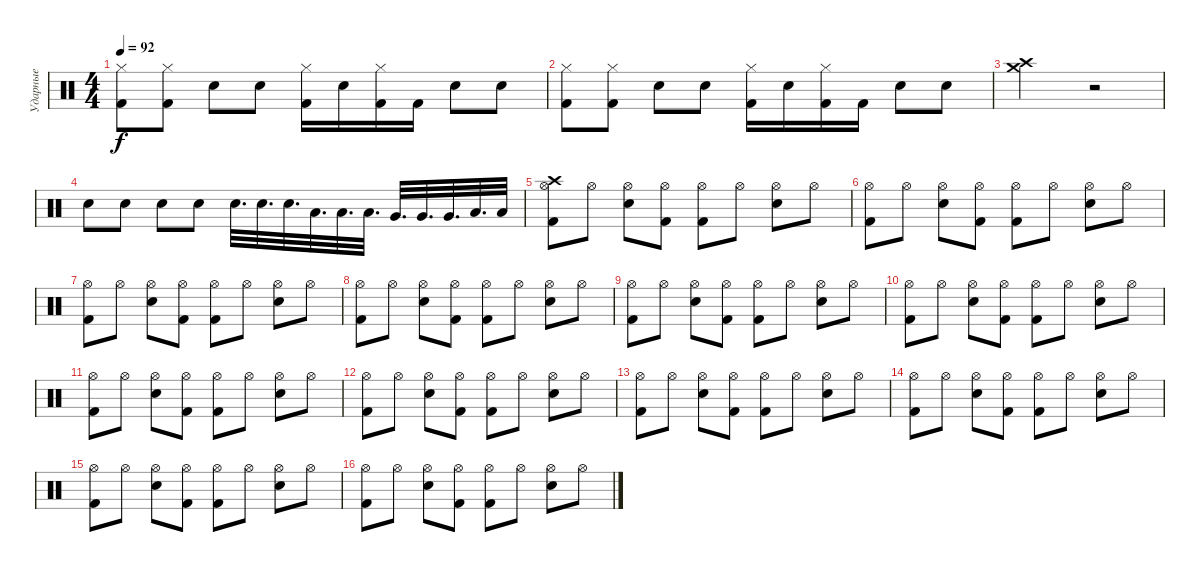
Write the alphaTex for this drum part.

\track ("Ударные" "Ударные") {instrument percussion}
\staff {score}
\articulation defaults
\ts (4 4)
\tempo 92
\clef neutral
\ks c
("Kick (hit) 2" "Hi-Hat (closed)").8{dy f} ("Kick (hit) 2" "Hi-Hat (closed)").8 "Electric Snare (hit)".8 "Electric Snare (hit)".8 ("Kick (hit) 2" "Hi-Hat (closed)").16 "Electric Snare (hit)".16 ("Kick (hit) 2" "Hi-Hat (closed)").16 "Kick (hit) 2".16 "Electric Snare (hit)".8 "Electric Snare (hit)".8 |
("Kick (hit) 2" "Hi-Hat (closed)").8 ("Kick (hit) 2" "Hi-Hat (closed)").8 "Electric Snare (hit)".8 "Electric Snare (hit)".8 ("Kick (hit) 2" "Hi-Hat (closed)").16 "Electric Snare (hit)".16 ("Kick (hit) 2" "Hi-Hat (closed)").16 "Kick (hit) 2".16 "Electric Snare (hit)".8 "Electric Snare (hit)".8 |
("Crash medium (hit)" "Crash high (hit)").2 r.2 |
"Electric Snare (hit)".8 "Electric Snare (hit)".8 "Electric Snare (hit)".8 "Electric Snare (hit)".8 "Electric Snare (hit)".32{d} "Electric Snare (hit)".32{d} "Electric Snare (hit)".32{d} "Low Tom (hit)".32{d} "Low Tom (hit)".32{d} "Low Tom (hit)".32{d} "Very Low Tom (hit)".32{d} "Very Low Tom (hit)".32{d} "Very Low Tom (hit)".32{d} "Low Floor Tom (hit)".32{d} "Low Floor Tom (hit)".32 |
("Kick (hit) 2" "Hi-Hat (open)" "Crash high (hit)").8 "Hi-Hat (open)".8 ("Electric Snare (hit)" "Hi-Hat (open)").8 ("Kick (hit) 2" "Hi-Hat (open)").8 ("Kick (hit) 2" "Hi-Hat (open)").8 "Hi-Hat (open)".8 ("Electric Snare (hit)" "Hi-Hat (open)").8 "Hi-Hat (open)".8 |
("Kick (hit) 2" "Hi-Hat (open)").8 "Hi-Hat (open)".8 ("Electric Snare (hit)" "Hi-Hat (open)").8 ("Kick (hit) 2" "Hi-Hat (open)").8 ("Kick (hit) 2" "Hi-Hat (open)").8 "Hi-Hat (open)".8 ("Electric Snare (hit)" "Hi-Hat (open)").8 "Hi-Hat (open)".8 |
("Kick (hit) 2" "Hi-Hat (open)").8 "Hi-Hat (open)".8 ("Electric Snare (hit)" "Hi-Hat (open)").8 ("Kick (hit) 2" "Hi-Hat (open)").8 ("Kick (hit) 2" "Hi-Hat (open)").8 "Hi-Hat (open)".8 ("Electric Snare (hit)" "Hi-Hat (open)").8 "Hi-Hat (open)".8 |
("Kick (hit) 2" "Hi-Hat (open)").8 "Hi-Hat (open)".8 ("Electric Snare (hit)" "Hi-Hat (open)").8 ("Kick (hit) 2" "Hi-Hat (open)").8 ("Kick (hit) 2" "Hi-Hat (open)").8 "Hi-Hat (open)".8 ("Electric Snare (hit)" "Hi-Hat (open)").8 "Hi-Hat (open)".8 |
("Kick (hit) 2" "Hi-Hat (open)").8 "Hi-Hat (open)".8 ("Electric Snare (hit)" "Hi-Hat (open)").8 ("Kick (hit) 2" "Hi-Hat (open)").8 ("Kick (hit) 2" "Hi-Hat (open)").8 "Hi-Hat (open)".8 ("Electric Snare (hit)" "Hi-Hat (open)").8 "Hi-Hat (open)".8 |
("Kick (hit) 2" "Hi-Hat (open)").8 "Hi-Hat (open)".8 ("Electric Snare (hit)" "Hi-Hat (open)").8 ("Kick (hit) 2" "Hi-Hat (open)").8 ("Kick (hit) 2" "Hi-Hat (open)").8 "Hi-Hat (open)".8 ("Electric Snare (hit)" "Hi-Hat (open)").8 "Hi-Hat (open)".8 |
("Kick (hit) 2" "Hi-Hat (open)").8 "Hi-Hat (open)".8 ("Electric Snare (hit)" "Hi-Hat (open)").8 ("Kick (hit) 2" "Hi-Hat (open)").8 ("Kick (hit) 2" "Hi-Hat (open)").8 "Hi-Hat (open)".8 ("Electric Snare (hit)" "Hi-Hat (open)").8 "Hi-Hat (open)".8 |
("Kick (hit) 2" "Hi-Hat (open)").8 "Hi-Hat (open)".8 ("Electric Snare (hit)" "Hi-Hat (open)").8 ("Kick (hit) 2" "Hi-Hat (open)").8 ("Kick (hit) 2" "Hi-Hat (open)").8 "Hi-Hat (open)".8 ("Electric Snare (hit)" "Hi-Hat (open)").8 "Hi-Hat (open)".8 |
("Kick (hit) 2" "Hi-Hat (open)").8 "Hi-Hat (open)".8 ("Electric Snare (hit)" "Hi-Hat (open)").8 ("Kick (hit) 2" "Hi-Hat (open)").8 ("Kick (hit) 2" "Hi-Hat (open)").8 "Hi-Hat (open)".8 ("Electric Snare (hit)" "Hi-Hat (open)").8 "Hi-Hat (open)".8 |
("Kick (hit) 2" "Hi-Hat (open)").8 "Hi-Hat (open)".8 ("Electric Snare (hit)" "Hi-Hat (open)").8 ("Kick (hit) 2" "Hi-Hat (open)").8 ("Kick (hit) 2" "Hi-Hat (open)").8 "Hi-Hat (open)".8 ("Electric Snare (hit)" "Hi-Hat (open)").8 "Hi-Hat (open)".8 |
("Kick (hit) 2" "Hi-Hat (open)").8 "Hi-Hat (open)".8 ("Electric Snare (hit)" "Hi-Hat (open)").8 ("Kick (hit) 2" "Hi-Hat (open)").8 ("Kick (hit) 2" "Hi-Hat (open)").8 "Hi-Hat (open)".8 ("Electric Snare (hit)" "Hi-Hat (open)").8 "Hi-Hat (open)".8 |
("Kick (hit) 2" "Hi-Hat (open)").8 "Hi-Hat (open)".8 ("Electric Snare (hit)" "Hi-Hat (open)").8 ("Kick (hit) 2" "Hi-Hat (open)").8 ("Kick (hit) 2" "Hi-Hat (open)").8 "Hi-Hat (open)".8 ("Electric Snare (hit)" "Hi-Hat (open)").8 "Hi-Hat (open)".8
